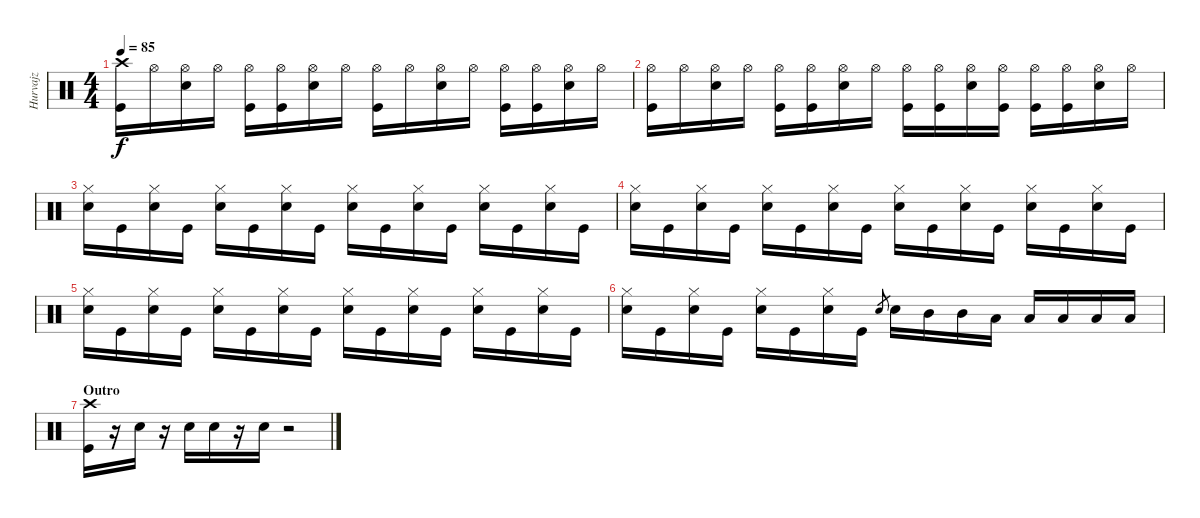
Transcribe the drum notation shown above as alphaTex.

\track ("Hurvajz" "Hurvajz") {instrument percussion}
\staff {score}
\articulation defaults
\ts (4 4)
\tempo 85
\clef neutral
\ks c
("Crash high (hit)" "Kick (hit)").16{dy f} "Hi-Hat (open)".16 ("Hi-Hat (open)" "Snare (hit) 2").16 "Hi-Hat (open)".16 ("Hi-Hat (open)" "Kick (hit)").16 ("Hi-Hat (open)" "Kick (hit)").16 ("Hi-Hat (open)" "Snare (hit) 2").16 "Hi-Hat (open)".16 ("Hi-Hat (open)" "Kick (hit)").16 "Hi-Hat (open)".16 ("Hi-Hat (open)" "Snare (hit) 2").16 "Hi-Hat (open)".16 ("Hi-Hat (open)" "Kick (hit)").16 ("Hi-Hat (open)" "Kick (hit)").16 ("Hi-Hat (open)" "Snare (hit) 2").16 "Hi-Hat (open)".16 |
("Hi-Hat (open)" "Kick (hit)").16 "Hi-Hat (open)".16 ("Hi-Hat (open)" "Snare (hit) 2").16 "Hi-Hat (open)".16 ("Hi-Hat (open)" "Kick (hit)").16 ("Hi-Hat (open)" "Kick (hit)").16 ("Hi-Hat (open)" "Snare (hit) 2").16 "Hi-Hat (open)".16 ("Hi-Hat (open)" "Kick (hit)").16 ("Hi-Hat (open)" "Kick (hit)").16 ("Hi-Hat (open)" "Snare (hit) 2").16 ("Hi-Hat (open)" "Kick (hit)").16 ("Hi-Hat (open)" "Kick (hit)").16 ("Hi-Hat (open)" "Kick (hit)").16 ("Hi-Hat (open)" "Snare (hit) 2").16 "Hi-Hat (open)".16 |
("Hi-Hat (closed)" "Snare (hit) 2").16 "Kick (hit)".16 ("Hi-Hat (closed)" "Snare (hit) 2").16 "Kick (hit)".16 ("Hi-Hat (closed)" "Snare (hit) 2").16 "Kick (hit)".16 ("Hi-Hat (closed)" "Snare (hit) 2").16 "Kick (hit)".16 ("Hi-Hat (closed)" "Snare (hit) 2").16 "Kick (hit)".16 ("Hi-Hat (closed)" "Snare (hit) 2").16 "Kick (hit)".16 ("Hi-Hat (closed)" "Snare (hit) 2").16 "Kick (hit)".16 ("Hi-Hat (closed)" "Snare (hit) 2").16 "Kick (hit)".16 |
("Hi-Hat (closed)" "Snare (hit) 2").16 "Kick (hit)".16 ("Hi-Hat (closed)" "Snare (hit) 2").16 "Kick (hit)".16 ("Hi-Hat (closed)" "Snare (hit) 2").16 "Kick (hit)".16 ("Hi-Hat (closed)" "Snare (hit) 2").16 "Kick (hit)".16 ("Hi-Hat (closed)" "Snare (hit) 2").16 "Kick (hit)".16 ("Hi-Hat (closed)" "Snare (hit) 2").16 "Kick (hit)".16 ("Hi-Hat (closed)" "Snare (hit) 2").16 "Kick (hit)".16 ("Hi-Hat (closed)" "Snare (hit) 2").16 "Kick (hit)".16 |
("Hi-Hat (closed)" "Snare (hit) 2").16 "Kick (hit)".16 ("Hi-Hat (closed)" "Snare (hit) 2").16 "Kick (hit)".16 ("Hi-Hat (closed)" "Snare (hit) 2").16 "Kick (hit)".16 ("Hi-Hat (closed)" "Snare (hit) 2").16 "Kick (hit)".16 ("Hi-Hat (closed)" "Snare (hit) 2").16 "Kick (hit)".16 ("Hi-Hat (closed)" "Snare (hit) 2").16 "Kick (hit)".16 ("Hi-Hat (closed)" "Snare (hit) 2").16 "Kick (hit)".16 ("Hi-Hat (closed)" "Snare (hit) 2").16 "Kick (hit)".16 |
("Hi-Hat (closed)" "Snare (hit) 2").16 "Kick (hit)".16 ("Hi-Hat (closed)" "Snare (hit) 2").16 "Kick (hit)".16 ("Hi-Hat (closed)" "Snare (hit) 2").16 "Kick (hit)".16 ("Hi-Hat (closed)" "Snare (hit) 2").16 "Kick (hit)".16 "Snare (hit) 2".8{gr} "Snare (hit) 2".16 "Mid Tom (hit)".16 "Mid Tom (hit)".16 "Low Tom (hit)".16 "Low Tom (hit)".16 "Low Floor Tom (hit)".16 "Low Floor Tom (hit)".16 "Low Floor Tom (hit)".16 |
\section ("" "Outro")
("Crash high (hit)" "Kick (hit)").16 r.16 "Snare (hit) 2".16 r.16 "Snare (hit) 2".16 "Snare (hit) 2".16 r.16 "Snare (hit) 2".16 r.2
